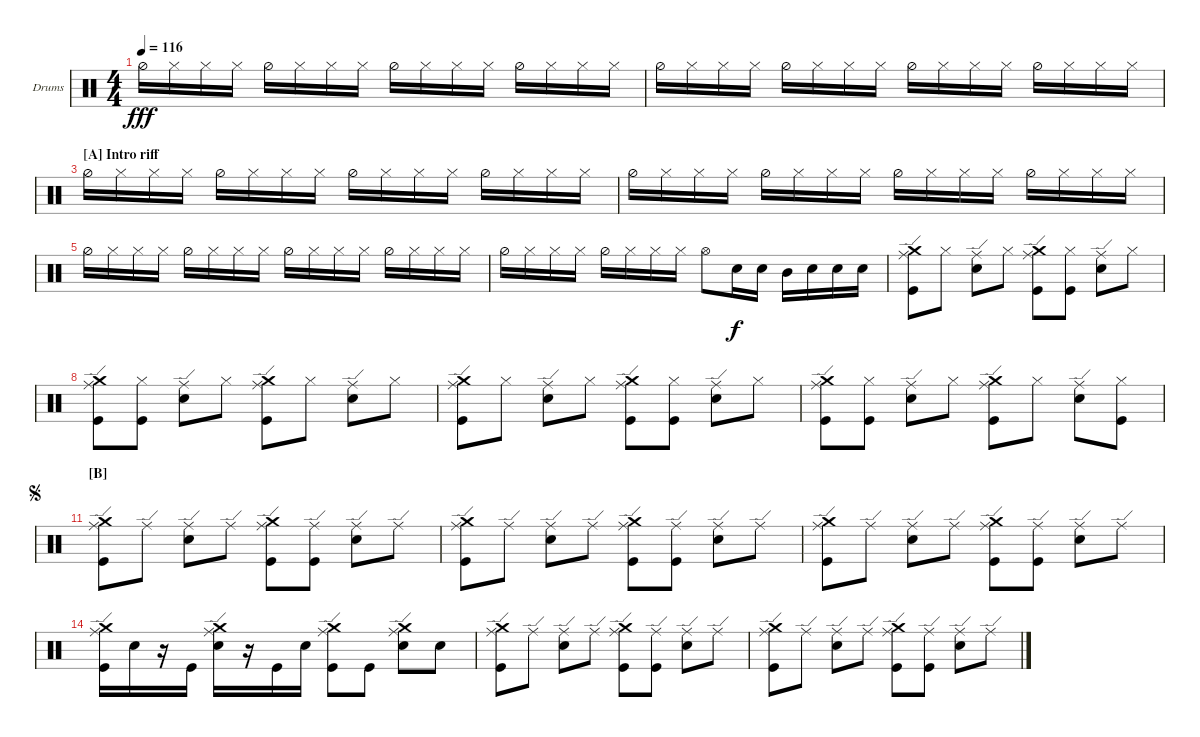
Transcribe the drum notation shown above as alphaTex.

\bracketExtendMode nobrackets
\firstSystemTrackNameOrientation horizontal
\otherSystemsTrackNameOrientation horizontal
\defaultBarNumberDisplay FirstOfSystem
\track ("Drumkit" "Drums") {instrument percussion}
\staff {score}
\articulation defaults
\ts (4 4)
\beaming (8 2 2 2 2)
\tempo 116
\clef neutral
\scale
0.53078
\ks c "Hi-Hat (half)".16{dy fff} "Hi-Hat (closed)".16 "Hi-Hat (closed)".16 "Hi-Hat (closed)".16 "Hi-Hat (half)".16 "Hi-Hat (closed)".16 "Hi-Hat (closed)".16 "Hi-Hat (closed)".16 "Hi-Hat (half)".16 "Hi-Hat (closed)".16 "Hi-Hat (closed)".16 "Hi-Hat (closed)".16 "Hi-Hat (half)".16 "Hi-Hat (closed)".16 "Hi-Hat (closed)".16 "Hi-Hat (closed)".16
|
\scale
0.46922 "Hi-Hat (half)".16 "Hi-Hat (closed)".16 "Hi-Hat (closed)".16 "Hi-Hat (closed)".16 "Hi-Hat (half)".16 "Hi-Hat (closed)".16 "Hi-Hat (closed)".16 "Hi-Hat (closed)".16 "Hi-Hat (half)".16 "Hi-Hat (closed)".16 "Hi-Hat (closed)".16 "Hi-Hat (closed)".16 "Hi-Hat (half)".16 "Hi-Hat (closed)".16 "Hi-Hat (closed)".16 "Hi-Hat (closed)".16 |
\section ("A" "Intro riff")
\scale
0.5 "Hi-Hat (half)".16 "Hi-Hat (closed)".16 "Hi-Hat (closed)".16 "Hi-Hat (closed)".16 "Hi-Hat (half)".16 "Hi-Hat (closed)".16 "Hi-Hat (closed)".16 "Hi-Hat (closed)".16 "Hi-Hat (half)".16 "Hi-Hat (closed)".16 "Hi-Hat (closed)".16 "Hi-Hat (closed)".16 "Hi-Hat (half)".16 "Hi-Hat (closed)".16 "Hi-Hat (closed)".16 "Hi-Hat (closed)".16 |
\scale
0.5 "Hi-Hat (half)".16 "Hi-Hat (closed)".16 "Hi-Hat (closed)".16 "Hi-Hat (closed)".16 "Hi-Hat (half)".16 "Hi-Hat (closed)".16 "Hi-Hat (closed)".16 "Hi-Hat (closed)".16 "Hi-Hat (half)".16 "Hi-Hat (closed)".16 "Hi-Hat (closed)".16 "Hi-Hat (closed)".16 "Hi-Hat (half)".16 "Hi-Hat (closed)".16 "Hi-Hat (closed)".16 "Hi-Hat (closed)".16 |
\scale
0.511177 "Hi-Hat (half)".16 "Hi-Hat (closed)".16 "Hi-Hat (closed)".16 "Hi-Hat (closed)".16 "Hi-Hat (half)".16 "Hi-Hat (closed)".16 "Hi-Hat (closed)".16 "Hi-Hat (closed)".16 "Hi-Hat (half)".16 "Hi-Hat (closed)".16 "Hi-Hat (closed)".16 "Hi-Hat (closed)".16 "Hi-Hat (half)".16 "Hi-Hat (closed)".16 "Hi-Hat (closed)".16 "Hi-Hat (closed)".16 |
\scale
0.488823 "Hi-Hat (half)".16 "Hi-Hat (closed)".16 "Hi-Hat (closed)".16 "Hi-Hat (closed)".16 "Hi-Hat (half)".16 "Hi-Hat (closed)".16 "Hi-Hat (closed)".16 "Hi-Hat (closed)".16 "Hi-Hat (open)".8 "Snare (hit) 2".16{dy f} "Snare (hit) 2".16 "Mid Tom (hit)".16 "Snare (hit) 2".16 "Snare (hit) 2".16 "Snare (hit) 2".16 |
\scale
0.5 ("Kick (hit)" "Crash medium (hit)" "Ride (edge)").8 "Hi-Hat (closed)".8 ("Snare (hit) 2" "Ride (edge)").8 "Hi-Hat (closed)".8 ("Kick (hit)" "Crash medium (hit)" "Ride (edge)").8 ("Kick (hit)" "Hi-Hat (closed)").8 ("Snare (hit) 2" "Ride (edge)").8 "Hi-Hat (closed)".8 |
\scale
0.5 ("Kick (hit)" "Ride (edge)" "Crash medium (hit)").8 ("Hi-Hat (closed)" "Kick (hit)").8 ("Snare (hit) 2" "Ride (edge)").8 "Hi-Hat (closed)".8 ("Kick (hit)" "Ride (edge)" "Crash medium (hit)").8 "Hi-Hat (closed)".8 ("Snare (hit) 2" "Ride (edge)").8 "Hi-Hat (closed)".8 |
\scale
0.516553
\scale
0.5 ("Kick (hit)" "Crash medium (hit)" "Ride (edge)").8 "Hi-Hat (closed)".8 ("Snare (hit) 2" "Ride (edge)").8 "Hi-Hat (closed)".8 ("Kick (hit)" "Crash medium (hit)" "Ride (edge)").8 ("Kick (hit)" "Hi-Hat (closed)").8 ("Snare (hit) 2" "Ride (edge)").8 "Hi-Hat (closed)".8 |
\scale
0.483496
\scale
0.5 ("Kick (hit)" "Ride (edge)" "Crash medium (hit)").8 ("Hi-Hat (closed)" "Kick (hit)").8 ("Snare (hit) 2" "Ride (edge)").8 "Hi-Hat (closed)".8 ("Kick (hit)" "Ride (edge)" "Crash medium (hit)").8 "Hi-Hat (closed)".8 ("Snare (hit) 2" "Ride (edge)").8 ("Hi-Hat (closed)" "Kick (hit)").8 |
\section ("B" "")
\jump segno
\scale
0.46748 ("Kick (hit)" "Ride (edge)" "Crash medium (hit)").8 "Ride (edge)".8 ("Snare (hit) 2" "Ride (edge)").8 "Ride (edge)".8 ("Kick (hit)" "Ride (edge)" "Crash medium (hit)").8 ("Kick (hit)" "Ride (edge)").8 ("Snare (hit) 2" "Ride (edge)").8 "Ride (edge)".8 |
\scale
0.53252 ("Kick (hit)" "Ride (edge)" "Crash medium (hit)").8 "Ride (edge)".8 ("Snare (hit) 2" "Ride (edge)").8 "Ride (edge)".8 ("Kick (hit)" "Ride (edge)" "Crash medium (hit)").8 ("Kick (hit)" "Ride (edge)").8 ("Snare (hit) 2" "Ride (edge)").8 "Ride (edge)".8 |
\scale
0.531477
\scale
0.423573 ("Kick (hit)" "Ride (edge)" "Crash medium (hit)").8 "Ride (edge)".8 ("Snare (hit) 2" "Ride (edge)").8 "Ride (edge)".8 ("Kick (hit)" "Ride (edge)" "Crash medium (hit)").8 ("Kick (hit)" "Ride (edge)").8 ("Snare (hit) 2" "Ride (edge)").8 "Ride (edge)".8 |
\scale
0.468238
\scale
0.576427 ("Kick (hit)" "Ride (edge)" "Crash medium (hit)").16 "Snare (hit) 2".16 r.16 "Kick (hit)".16 ("Snare (hit) 2" "Ride (edge)" "Crash medium (hit)").16 r.16 "Kick (hit)".16 "Snare (hit) 2".16 ("Kick (hit)" "Ride (edge)" "Crash medium (hit)").8 "Kick (hit)".8 ("Snare (hit) 2" "Ride (edge)" "Crash medium (hit)").8 "Snare (hit) 2".8 |
\scale
0.520047
\scale
0.485232 ("Kick (hit)" "Ride (edge)" "Crash medium (hit)").8 "Ride (edge)".8 ("Snare (hit) 2" "Ride (edge)").8 "Ride (edge)".8 ("Kick (hit)" "Ride (edge)" "Crash medium (hit)").8 ("Kick (hit)" "Ride (edge)").8 ("Snare (hit) 2" "Ride (edge)").8 "Ride (edge)".8 |
\scale
0.479624
\scale
0.514768 ("Kick (hit)" "Ride (edge)" "Crash medium (hit)").8 "Ride (edge)".8 ("Snare (hit) 2" "Ride (edge)").8 "Ride (edge)".8 ("Kick (hit)" "Ride (edge)" "Crash medium (hit)").8 ("Kick (hit)" "Ride (edge)").8 ("Snare (hit) 2" "Ride (edge)").8 "Ride (edge)".8
